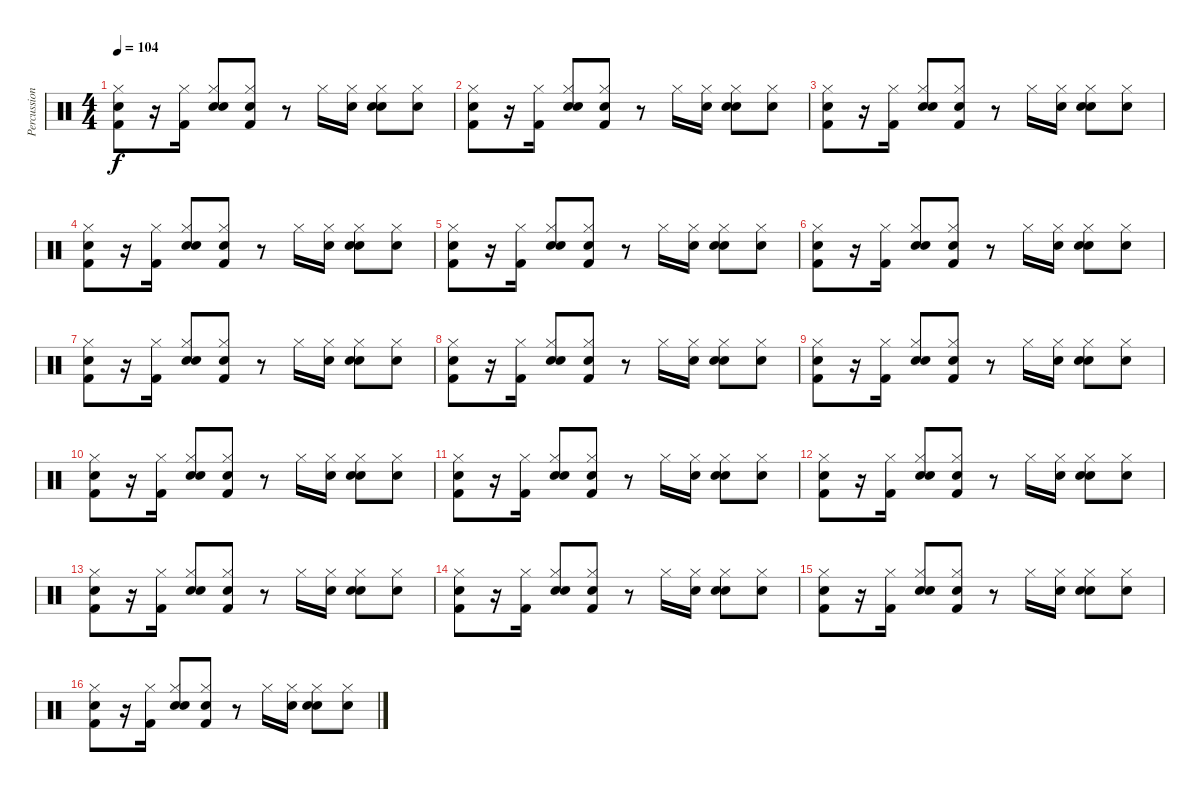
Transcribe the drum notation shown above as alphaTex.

\track ("Percussion" "Percussion") {instrument percussion}
\staff {score}
\articulation defaults
\ts (4 4)
\tempo 104
\clef neutral
\ks c
("Snare (hit)" "Hi-Hat (closed)" "Kick (hit) 2").8{dy f} r.16 ("Kick (hit) 2" "Hi-Hat (closed)").16 ("Snare (hit)" "Electric Snare (hit)" "Hi-Hat (closed)").8 ("Snare (hit)" "Kick (hit) 2" "Hi-Hat (closed)").8 r.8 "Hi-Hat (closed)".16 ("Snare (hit)" "Hi-Hat (closed)").16 ("Snare (hit)" "Electric Snare (hit)" "Hi-Hat (closed)").8 ("Snare (hit)" "Hi-Hat (closed)").8 |
("Snare (hit)" "Hi-Hat (closed)" "Kick (hit) 2").8 r.16 ("Kick (hit) 2" "Hi-Hat (closed)").16 ("Snare (hit)" "Electric Snare (hit)" "Hi-Hat (closed)").8 ("Snare (hit)" "Kick (hit) 2" "Hi-Hat (closed)").8 r.8 "Hi-Hat (closed)".16 ("Snare (hit)" "Hi-Hat (closed)").16 ("Snare (hit)" "Electric Snare (hit)" "Hi-Hat (closed)").8 ("Snare (hit)" "Hi-Hat (closed)").8 |
("Snare (hit)" "Hi-Hat (closed)" "Kick (hit) 2").8 r.16 ("Kick (hit) 2" "Hi-Hat (closed)").16 ("Snare (hit)" "Electric Snare (hit)" "Hi-Hat (closed)").8 ("Snare (hit)" "Kick (hit) 2" "Hi-Hat (closed)").8 r.8 "Hi-Hat (closed)".16 ("Snare (hit)" "Hi-Hat (closed)").16 ("Snare (hit)" "Electric Snare (hit)" "Hi-Hat (closed)").8 ("Snare (hit)" "Hi-Hat (closed)").8 |
("Snare (hit)" "Hi-Hat (closed)" "Kick (hit) 2").8 r.16 ("Kick (hit) 2" "Hi-Hat (closed)").16 ("Snare (hit)" "Electric Snare (hit)" "Hi-Hat (closed)").8 ("Snare (hit)" "Kick (hit) 2" "Hi-Hat (closed)").8 r.8 "Hi-Hat (closed)".16 ("Snare (hit)" "Hi-Hat (closed)").16 ("Snare (hit)" "Electric Snare (hit)" "Hi-Hat (closed)").8 ("Snare (hit)" "Hi-Hat (closed)").8 |
("Snare (hit)" "Hi-Hat (closed)" "Kick (hit) 2").8 r.16 ("Kick (hit) 2" "Hi-Hat (closed)").16 ("Snare (hit)" "Electric Snare (hit)" "Hi-Hat (closed)").8 ("Snare (hit)" "Kick (hit) 2" "Hi-Hat (closed)").8 r.8 "Hi-Hat (closed)".16 ("Snare (hit)" "Hi-Hat (closed)").16 ("Snare (hit)" "Electric Snare (hit)" "Hi-Hat (closed)").8 ("Snare (hit)" "Hi-Hat (closed)").8 |
("Snare (hit)" "Hi-Hat (closed)" "Kick (hit) 2").8 r.16 ("Kick (hit) 2" "Hi-Hat (closed)").16 ("Snare (hit)" "Electric Snare (hit)" "Hi-Hat (closed)").8 ("Snare (hit)" "Kick (hit) 2" "Hi-Hat (closed)").8 r.8 "Hi-Hat (closed)".16 ("Snare (hit)" "Hi-Hat (closed)").16 ("Snare (hit)" "Electric Snare (hit)" "Hi-Hat (closed)").8 ("Snare (hit)" "Hi-Hat (closed)").8 |
("Snare (hit)" "Hi-Hat (closed)" "Kick (hit) 2").8 r.16 ("Kick (hit) 2" "Hi-Hat (closed)").16 ("Snare (hit)" "Electric Snare (hit)" "Hi-Hat (closed)").8 ("Snare (hit)" "Kick (hit) 2" "Hi-Hat (closed)").8 r.8 "Hi-Hat (closed)".16 ("Snare (hit)" "Hi-Hat (closed)").16 ("Snare (hit)" "Electric Snare (hit)" "Hi-Hat (closed)").8 ("Snare (hit)" "Hi-Hat (closed)").8 |
("Snare (hit)" "Hi-Hat (closed)" "Kick (hit) 2").8 r.16 ("Kick (hit) 2" "Hi-Hat (closed)").16 ("Snare (hit)" "Electric Snare (hit)" "Hi-Hat (closed)").8 ("Snare (hit)" "Kick (hit) 2" "Hi-Hat (closed)").8 r.8 "Hi-Hat (closed)".16 ("Snare (hit)" "Hi-Hat (closed)").16 ("Snare (hit)" "Electric Snare (hit)" "Hi-Hat (closed)").8 ("Snare (hit)" "Hi-Hat (closed)").8 |
("Snare (hit)" "Hi-Hat (closed)" "Kick (hit) 2").8 r.16 ("Kick (hit) 2" "Hi-Hat (closed)").16 ("Snare (hit)" "Electric Snare (hit)" "Hi-Hat (closed)").8 ("Snare (hit)" "Kick (hit) 2" "Hi-Hat (closed)").8 r.8 "Hi-Hat (closed)".16 ("Snare (hit)" "Hi-Hat (closed)").16 ("Snare (hit)" "Electric Snare (hit)" "Hi-Hat (closed)").8 ("Snare (hit)" "Hi-Hat (closed)").8 |
("Snare (hit)" "Hi-Hat (closed)" "Kick (hit) 2").8 r.16 ("Kick (hit) 2" "Hi-Hat (closed)").16 ("Snare (hit)" "Electric Snare (hit)" "Hi-Hat (closed)").8 ("Snare (hit)" "Kick (hit) 2" "Hi-Hat (closed)").8 r.8 "Hi-Hat (closed)".16 ("Snare (hit)" "Hi-Hat (closed)").16 ("Snare (hit)" "Electric Snare (hit)" "Hi-Hat (closed)").8 ("Snare (hit)" "Hi-Hat (closed)").8 |
("Snare (hit)" "Hi-Hat (closed)" "Kick (hit) 2").8 r.16 ("Kick (hit) 2" "Hi-Hat (closed)").16 ("Snare (hit)" "Electric Snare (hit)" "Hi-Hat (closed)").8 ("Snare (hit)" "Kick (hit) 2" "Hi-Hat (closed)").8 r.8 "Hi-Hat (closed)".16 ("Snare (hit)" "Hi-Hat (closed)").16 ("Snare (hit)" "Electric Snare (hit)" "Hi-Hat (closed)").8 ("Snare (hit)" "Hi-Hat (closed)").8 |
("Snare (hit)" "Hi-Hat (closed)" "Kick (hit) 2").8 r.16 ("Kick (hit) 2" "Hi-Hat (closed)").16 ("Snare (hit)" "Electric Snare (hit)" "Hi-Hat (closed)").8 ("Snare (hit)" "Kick (hit) 2" "Hi-Hat (closed)").8 r.8 "Hi-Hat (closed)".16 ("Snare (hit)" "Hi-Hat (closed)").16 ("Snare (hit)" "Electric Snare (hit)" "Hi-Hat (closed)").8 ("Snare (hit)" "Hi-Hat (closed)").8 |
("Snare (hit)" "Hi-Hat (closed)" "Kick (hit) 2").8 r.16 ("Kick (hit) 2" "Hi-Hat (closed)").16 ("Snare (hit)" "Electric Snare (hit)" "Hi-Hat (closed)").8 ("Snare (hit)" "Kick (hit) 2" "Hi-Hat (closed)").8 r.8 "Hi-Hat (closed)".16 ("Snare (hit)" "Hi-Hat (closed)").16 ("Snare (hit)" "Electric Snare (hit)" "Hi-Hat (closed)").8 ("Snare (hit)" "Hi-Hat (closed)").8 |
("Snare (hit)" "Hi-Hat (closed)" "Kick (hit) 2").8 r.16 ("Kick (hit) 2" "Hi-Hat (closed)").16 ("Snare (hit)" "Electric Snare (hit)" "Hi-Hat (closed)").8 ("Snare (hit)" "Kick (hit) 2" "Hi-Hat (closed)").8 r.8 "Hi-Hat (closed)".16 ("Snare (hit)" "Hi-Hat (closed)").16 ("Snare (hit)" "Electric Snare (hit)" "Hi-Hat (closed)").8 ("Snare (hit)" "Hi-Hat (closed)").8 |
("Snare (hit)" "Hi-Hat (closed)" "Kick (hit) 2").8 r.16 ("Kick (hit) 2" "Hi-Hat (closed)").16 ("Snare (hit)" "Electric Snare (hit)" "Hi-Hat (closed)").8 ("Snare (hit)" "Kick (hit) 2" "Hi-Hat (closed)").8 r.8 "Hi-Hat (closed)".16 ("Snare (hit)" "Hi-Hat (closed)").16 ("Snare (hit)" "Electric Snare (hit)" "Hi-Hat (closed)").8 ("Snare (hit)" "Hi-Hat (closed)").8 |
("Snare (hit)" "Hi-Hat (closed)" "Kick (hit) 2").8 r.16 ("Kick (hit) 2" "Hi-Hat (closed)").16 ("Snare (hit)" "Electric Snare (hit)" "Hi-Hat (closed)").8 ("Snare (hit)" "Kick (hit) 2" "Hi-Hat (closed)").8 r.8 "Hi-Hat (closed)".16 ("Snare (hit)" "Hi-Hat (closed)").16 ("Snare (hit)" "Electric Snare (hit)" "Hi-Hat (closed)").8 ("Snare (hit)" "Hi-Hat (closed)").8
